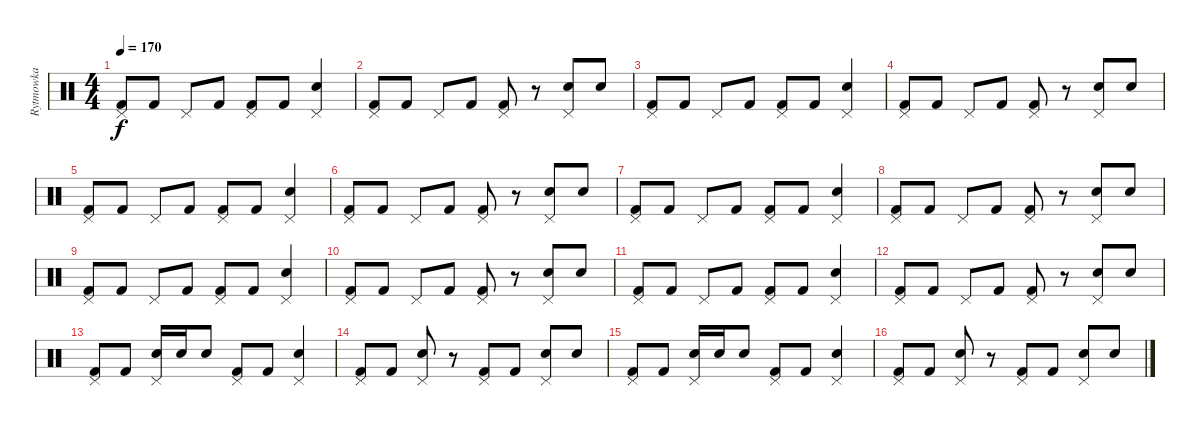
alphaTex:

\track ("Rytmowka" "Rytmowka") {instrument percussion}
\staff {score}
\articulation defaults
\ts (4 4)
\tempo 170
\clef neutral
\ks c
("Pedal Hi-Hat (hit)" "Kick (hit) 2").8{dy f} "Kick (hit) 2".8 "Pedal Hi-Hat (hit)".8 "Kick (hit) 2".8 ("Pedal Hi-Hat (hit)" "Kick (hit) 2").8 "Kick (hit) 2".8 ("Pedal Hi-Hat (hit)" "Snare (hit) 2").4 |
("Pedal Hi-Hat (hit)" "Kick (hit) 2").8 "Kick (hit) 2".8 "Pedal Hi-Hat (hit)".8 "Kick (hit) 2".8 ("Pedal Hi-Hat (hit)" "Kick (hit) 2").8 r.8 ("Pedal Hi-Hat (hit)" "Snare (hit) 2").8 "Snare (hit) 2".8 |
("Pedal Hi-Hat (hit)" "Kick (hit) 2").8 "Kick (hit) 2".8 "Pedal Hi-Hat (hit)".8 "Kick (hit) 2".8 ("Pedal Hi-Hat (hit)" "Kick (hit) 2").8 "Kick (hit) 2".8 ("Pedal Hi-Hat (hit)" "Snare (hit) 2").4 |
("Pedal Hi-Hat (hit)" "Kick (hit) 2").8 "Kick (hit) 2".8 "Pedal Hi-Hat (hit)".8 "Kick (hit) 2".8 ("Pedal Hi-Hat (hit)" "Kick (hit) 2").8 r.8 ("Pedal Hi-Hat (hit)" "Snare (hit) 2").8 "Snare (hit) 2".8 |
("Pedal Hi-Hat (hit)" "Kick (hit) 2").8 "Kick (hit) 2".8 "Pedal Hi-Hat (hit)".8 "Kick (hit) 2".8 ("Pedal Hi-Hat (hit)" "Kick (hit) 2").8 "Kick (hit) 2".8 ("Pedal Hi-Hat (hit)" "Snare (hit) 2").4 |
("Pedal Hi-Hat (hit)" "Kick (hit) 2").8 "Kick (hit) 2".8 "Pedal Hi-Hat (hit)".8 "Kick (hit) 2".8 ("Pedal Hi-Hat (hit)" "Kick (hit) 2").8 r.8 ("Pedal Hi-Hat (hit)" "Snare (hit) 2").8 "Snare (hit) 2".8 |
("Pedal Hi-Hat (hit)" "Kick (hit) 2").8 "Kick (hit) 2".8 "Pedal Hi-Hat (hit)".8 "Kick (hit) 2".8 ("Pedal Hi-Hat (hit)" "Kick (hit) 2").8 "Kick (hit) 2".8 ("Pedal Hi-Hat (hit)" "Snare (hit) 2").4 |
("Pedal Hi-Hat (hit)" "Kick (hit) 2").8 "Kick (hit) 2".8 "Pedal Hi-Hat (hit)".8 "Kick (hit) 2".8 ("Pedal Hi-Hat (hit)" "Kick (hit) 2").8 r.8 ("Pedal Hi-Hat (hit)" "Snare (hit) 2").8 "Snare (hit) 2".8 |
("Pedal Hi-Hat (hit)" "Kick (hit) 2").8 "Kick (hit) 2".8 "Pedal Hi-Hat (hit)".8 "Kick (hit) 2".8 ("Pedal Hi-Hat (hit)" "Kick (hit) 2").8 "Kick (hit) 2".8 ("Pedal Hi-Hat (hit)" "Snare (hit) 2").4 |
("Pedal Hi-Hat (hit)" "Kick (hit) 2").8 "Kick (hit) 2".8 "Pedal Hi-Hat (hit)".8 "Kick (hit) 2".8 ("Pedal Hi-Hat (hit)" "Kick (hit) 2").8 r.8 ("Pedal Hi-Hat (hit)" "Snare (hit) 2").8 "Snare (hit) 2".8 |
("Pedal Hi-Hat (hit)" "Kick (hit) 2").8 "Kick (hit) 2".8 "Pedal Hi-Hat (hit)".8 "Kick (hit) 2".8 ("Pedal Hi-Hat (hit)" "Kick (hit) 2").8 "Kick (hit) 2".8 ("Pedal Hi-Hat (hit)" "Snare (hit) 2").4 |
("Pedal Hi-Hat (hit)" "Kick (hit) 2").8 "Kick (hit) 2".8 "Pedal Hi-Hat (hit)".8 "Kick (hit) 2".8 ("Pedal Hi-Hat (hit)" "Kick (hit) 2").8 r.8 ("Pedal Hi-Hat (hit)" "Snare (hit) 2").8 "Snare (hit) 2".8 |
("Pedal Hi-Hat (hit)" "Kick (hit) 2").8 "Kick (hit) 2".8 ("Pedal Hi-Hat (hit)" "Snare (hit) 2").16 "Snare (hit) 2".16 "Snare (hit) 2".8 ("Pedal Hi-Hat (hit)" "Kick (hit) 2").8 "Kick (hit) 2".8 ("Pedal Hi-Hat (hit)" "Snare (hit) 2").4 |
("Pedal Hi-Hat (hit)" "Kick (hit) 2").8 "Kick (hit) 2".8 ("Pedal Hi-Hat (hit)" "Snare (hit) 2").8 r.8 ("Pedal Hi-Hat (hit)" "Kick (hit) 2").8 "Kick (hit) 2".8 ("Pedal Hi-Hat (hit)" "Snare (hit) 2").8 "Snare (hit) 2".8 |
("Pedal Hi-Hat (hit)" "Kick (hit) 2").8 "Kick (hit) 2".8 ("Pedal Hi-Hat (hit)" "Snare (hit) 2").16 "Snare (hit) 2".16 "Snare (hit) 2".8 ("Pedal Hi-Hat (hit)" "Kick (hit) 2").8 "Kick (hit) 2".8 ("Pedal Hi-Hat (hit)" "Snare (hit) 2").4 |
("Pedal Hi-Hat (hit)" "Kick (hit) 2").8 "Kick (hit) 2".8 ("Pedal Hi-Hat (hit)" "Snare (hit) 2").8 r.8 ("Pedal Hi-Hat (hit)" "Kick (hit) 2").8 "Kick (hit) 2".8 ("Pedal Hi-Hat (hit)" "Snare (hit) 2").8 "Snare (hit) 2".8
